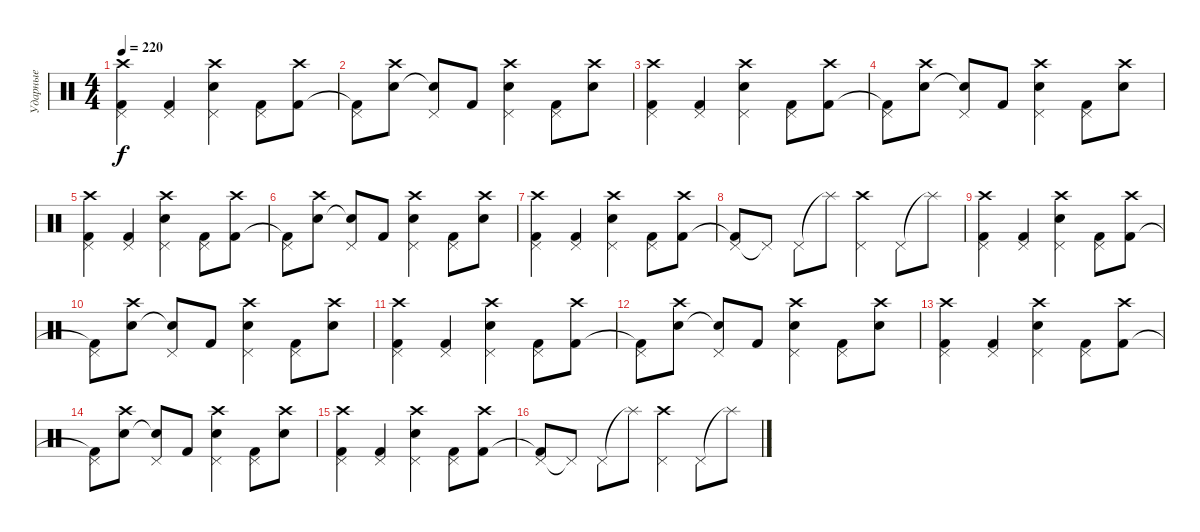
\track ("Ударные" "Ударные") {instrument percussion}
\staff {score}
\articulation defaults
\ts (4 4)
\tempo 220
\clef neutral
\ks c
("Crash high (hit)" "Pedal Hi-Hat (hit)" "Kick (hit) 2").4{dy f} ("Pedal Hi-Hat (hit)" "Kick (hit) 2").4 ("Crash high (hit)" "Pedal Hi-Hat (hit)" "Electric Snare (hit)").4 ("Pedal Hi-Hat (hit)" "Kick (hit) 2").8 ("Crash high (hit)" "Kick (hit) 2").8 |
("Pedal Hi-Hat (hit)" "Kick (hit) 2"{t}).8 ("Crash high (hit)" "Snare (hit) 2").8 ("Pedal Hi-Hat (hit)" "Snare (hit) 2"{t}).8 "Kick (hit) 2".8 ("Crash high (hit)" "Pedal Hi-Hat (hit)" "Electric Snare (hit)").4 ("Pedal Hi-Hat (hit)" "Kick (hit) 2").8 ("Crash high (hit)" "Snare (hit) 2").8 |
("Crash high (hit)" "Pedal Hi-Hat (hit)" "Kick (hit) 2").4 ("Pedal Hi-Hat (hit)" "Kick (hit) 2").4 ("Crash high (hit)" "Pedal Hi-Hat (hit)" "Electric Snare (hit)").4 ("Pedal Hi-Hat (hit)" "Kick (hit) 2").8 ("Crash high (hit)" "Kick (hit) 2").8 |
("Pedal Hi-Hat (hit)" "Kick (hit) 2"{t}).8 ("Crash high (hit)" "Snare (hit) 2").8 ("Pedal Hi-Hat (hit)" "Snare (hit) 2"{t}).8 "Kick (hit) 2".8 ("Crash high (hit)" "Pedal Hi-Hat (hit)" "Electric Snare (hit)").4 ("Pedal Hi-Hat (hit)" "Kick (hit) 2").8 ("Crash high (hit)" "Snare (hit) 2").8 |
("Crash high (hit)" "Pedal Hi-Hat (hit)" "Kick (hit) 2").4 ("Pedal Hi-Hat (hit)" "Kick (hit) 2").4 ("Crash high (hit)" "Pedal Hi-Hat (hit)" "Electric Snare (hit)").4 ("Pedal Hi-Hat (hit)" "Kick (hit) 2").8 ("Crash high (hit)" "Kick (hit) 2").8 |
("Pedal Hi-Hat (hit)" "Kick (hit) 2"{t}).8 ("Crash high (hit)" "Snare (hit) 2").8 ("Pedal Hi-Hat (hit)" "Snare (hit) 2"{t}).8 "Kick (hit) 2".8 ("Crash high (hit)" "Pedal Hi-Hat (hit)" "Electric Snare (hit)").4 ("Pedal Hi-Hat (hit)" "Kick (hit) 2").8 ("Crash high (hit)" "Snare (hit) 2").8 |
("Crash high (hit)" "Pedal Hi-Hat (hit)" "Kick (hit) 2").4 ("Pedal Hi-Hat (hit)" "Kick (hit) 2").4 ("Crash high (hit)" "Pedal Hi-Hat (hit)" "Electric Snare (hit)").4 ("Pedal Hi-Hat (hit)" "Kick (hit) 2").8 ("Crash high (hit)" "Kick (hit) 2").8 |
("Pedal Hi-Hat (hit)" "Kick (hit) 2"{t}).8 "Pedal Hi-Hat (hit)"{t}.8 "Pedal Hi-Hat (hit)".8 "Splash (hit)"{t}.8 ("Crash high (hit)" "Pedal Hi-Hat (hit)").4 "Pedal Hi-Hat (hit)".8 "Splash (hit)"{t}.8 |
("Crash high (hit)" "Pedal Hi-Hat (hit)" "Kick (hit) 2").4 ("Pedal Hi-Hat (hit)" "Kick (hit) 2").4 ("Crash high (hit)" "Pedal Hi-Hat (hit)" "Electric Snare (hit)").4 ("Pedal Hi-Hat (hit)" "Kick (hit) 2").8 ("Crash high (hit)" "Kick (hit) 2").8 |
("Pedal Hi-Hat (hit)" "Kick (hit) 2"{t}).8 ("Crash high (hit)" "Snare (hit) 2").8 ("Pedal Hi-Hat (hit)" "Snare (hit) 2"{t}).8 "Kick (hit) 2".8 ("Crash high (hit)" "Pedal Hi-Hat (hit)" "Electric Snare (hit)").4 ("Pedal Hi-Hat (hit)" "Kick (hit) 2").8 ("Crash high (hit)" "Snare (hit) 2").8 |
("Crash high (hit)" "Pedal Hi-Hat (hit)" "Kick (hit) 2").4 ("Pedal Hi-Hat (hit)" "Kick (hit) 2").4 ("Crash high (hit)" "Pedal Hi-Hat (hit)" "Electric Snare (hit)").4 ("Pedal Hi-Hat (hit)" "Kick (hit) 2").8 ("Crash high (hit)" "Kick (hit) 2").8 |
("Pedal Hi-Hat (hit)" "Kick (hit) 2"{t}).8 ("Crash high (hit)" "Snare (hit) 2").8 ("Pedal Hi-Hat (hit)" "Snare (hit) 2"{t}).8 "Kick (hit) 2".8 ("Crash high (hit)" "Pedal Hi-Hat (hit)" "Electric Snare (hit)").4 ("Pedal Hi-Hat (hit)" "Kick (hit) 2").8 ("Crash high (hit)" "Snare (hit) 2").8 |
("Crash high (hit)" "Pedal Hi-Hat (hit)" "Kick (hit) 2").4 ("Pedal Hi-Hat (hit)" "Kick (hit) 2").4 ("Crash high (hit)" "Pedal Hi-Hat (hit)" "Electric Snare (hit)").4 ("Pedal Hi-Hat (hit)" "Kick (hit) 2").8 ("Crash high (hit)" "Kick (hit) 2").8 |
("Pedal Hi-Hat (hit)" "Kick (hit) 2"{t}).8 ("Crash high (hit)" "Snare (hit) 2").8 ("Pedal Hi-Hat (hit)" "Snare (hit) 2"{t}).8 "Kick (hit) 2".8 ("Crash high (hit)" "Pedal Hi-Hat (hit)" "Electric Snare (hit)").4 ("Pedal Hi-Hat (hit)" "Kick (hit) 2").8 ("Crash high (hit)" "Snare (hit) 2").8 |
("Crash high (hit)" "Pedal Hi-Hat (hit)" "Kick (hit) 2").4 ("Pedal Hi-Hat (hit)" "Kick (hit) 2").4 ("Crash high (hit)" "Pedal Hi-Hat (hit)" "Electric Snare (hit)").4 ("Pedal Hi-Hat (hit)" "Kick (hit) 2").8 ("Crash high (hit)" "Kick (hit) 2").8 |
("Pedal Hi-Hat (hit)" "Kick (hit) 2"{t}).8 "Pedal Hi-Hat (hit)"{t}.8 "Pedal Hi-Hat (hit)".8 "Splash (hit)"{t}.8 ("Crash high (hit)" "Pedal Hi-Hat (hit)").4 "Pedal Hi-Hat (hit)".8 "Splash (hit)"{t}.8
